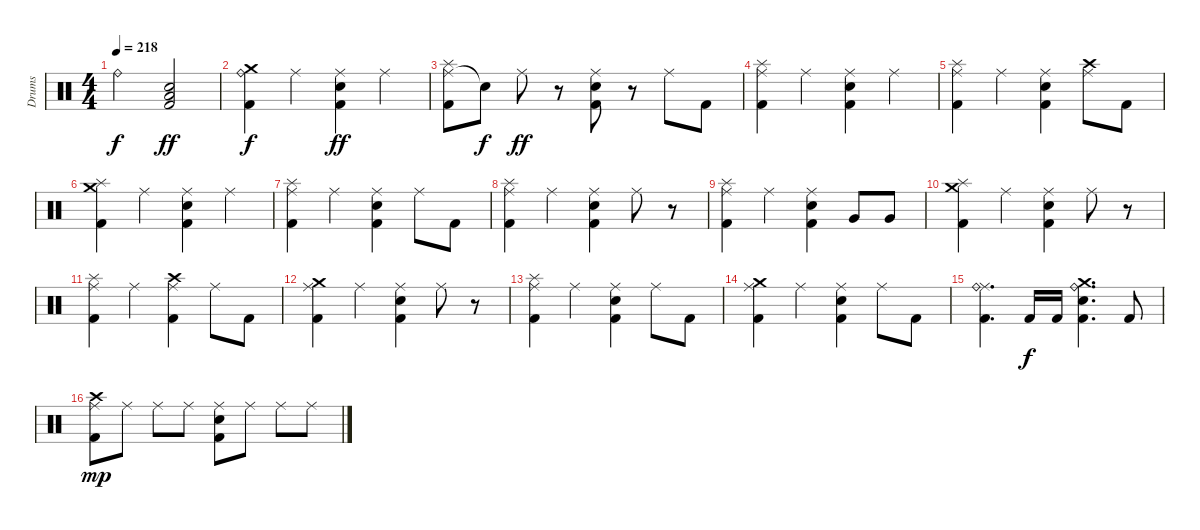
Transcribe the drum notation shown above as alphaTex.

\track ("Drums" "Drums") {instrument percussion}
\staff {score}
\articulation defaults
\ts (4 4)
\tempo 218
\clef neutral
\ks c "Ride (bell)".2{dy f}
("Low Floor Tom (hit)" "Electric Snare (hit)" "Kick (hit) 2").2{dy ff} |
("Crash medium (hit)" "Ride (bell)" "Kick (hit) 2").4{dy f} "Ride (middle)".4 ("Ride (middle)" "Electric Snare (hit)" "Kick (hit) 2").4{dy ff} "Ride (middle)".4 |
("Ride (middle)" "Splash (hit)" "Kick (hit) 2").8 "Snare (hit)"{t}.8{dy f} "Ride (middle)".8{dy ff} r.8 ("Ride (middle)" "Electric Snare (hit)" "Kick (hit) 2").8 r.8 "Ride (middle)".8 "Kick (hit) 2".8 |
("Ride (middle)" "Splash (hit)" "Kick (hit) 2").4 "Ride (middle)".4 ("Ride (middle)" "Electric Snare (hit)" "Kick (hit) 2").4 "Ride (middle)".4 |
("Ride (middle)" "Splash (hit)" "Kick (hit) 2").4 "Ride (middle)".4 ("Ride (middle)" "Electric Snare (hit)" "Kick (hit) 2").4 ("Ride (middle)" "Crash high (hit)").8 "Kick (hit) 2".8 |
("Crash medium (hit)" "Splash (hit)" "Kick (hit) 2").4 "Ride (middle)".4 ("Ride (middle)" "Electric Snare (hit)" "Kick (hit) 2").4 "Ride (middle)".4 |
("Ride (middle)" "Splash (hit)" "Kick (hit) 2").4 "Ride (middle)".4 ("Ride (middle)" "Electric Snare (hit)" "Kick (hit) 2").4 "Ride (middle)".8 "Kick (hit) 2".8 |
("Ride (middle)" "Splash (hit)" "Kick (hit) 2").4 "Ride (middle)".4 ("Ride (middle)" "Electric Snare (hit)" "Kick (hit) 2").4 "Ride (middle)".8 r.8 |
("Ride (middle)" "Splash (hit)" "Kick (hit) 2").4 "Ride (middle)".4 ("Ride (middle)" "Electric Snare (hit)" "Kick (hit) 2").4 "Very Low Tom (hit)".8 "Very Low Tom (hit)".8 |
("Crash medium (hit)" "Splash (hit)" "Kick (hit) 2").4 "Ride (middle)".4 ("Ride (middle)" "Electric Snare (hit)" "Kick (hit) 2").4 "Ride (middle)".8 r.8 |
("Ride (middle)" "Splash (hit)" "Kick (hit) 2").4 "Ride (middle)".4 ("Ride (middle)" "Crash high (hit)" "Kick (hit) 2").4 "Ride (middle)".8 "Kick (hit) 2".8 |
("Ride (middle)" "Crash medium (hit)" "Kick (hit) 2").4 "Ride (middle)".4 ("Ride (middle)" "Electric Snare (hit)" "Kick (hit) 2").4 "Ride (middle)".8 r.8 |
("Ride (middle)" "Splash (hit)" "Kick (hit) 2").4 "Ride (middle)".4 ("Ride (middle)" "Electric Snare (hit)" "Kick (hit) 2").4 "Ride (middle)".8 "Kick (hit) 2".8 |
("Ride (middle)" "Crash medium (hit)" "Kick (hit) 2").4 "Ride (middle)".4 ("Ride (middle)" "Electric Snare (hit)" "Kick (hit) 2").4 "Ride (middle)".8 "Kick (hit) 2".8 |
("Ride (middle)" "Ride (bell)" "Kick (hit) 2").4{d} "Kick (hit) 2".16{dy f} "Kick (hit) 2".16 ("Crash medium (hit)" "Ride (bell)" "Electric Snare (hit)" "Kick (hit) 2").4{d} "Kick (hit) 2".8 |
("Crash high (hit)" "Ride (middle)" "Kick (hit) 2").8{dy mp} "Ride (middle)".8 "Ride (middle)".8 "Ride (middle)".8 ("Ride (middle)" "Electric Snare (hit)" "Kick (hit) 2").8 "Ride (middle)".8 "Ride (middle)".8 "Ride (middle)".8
